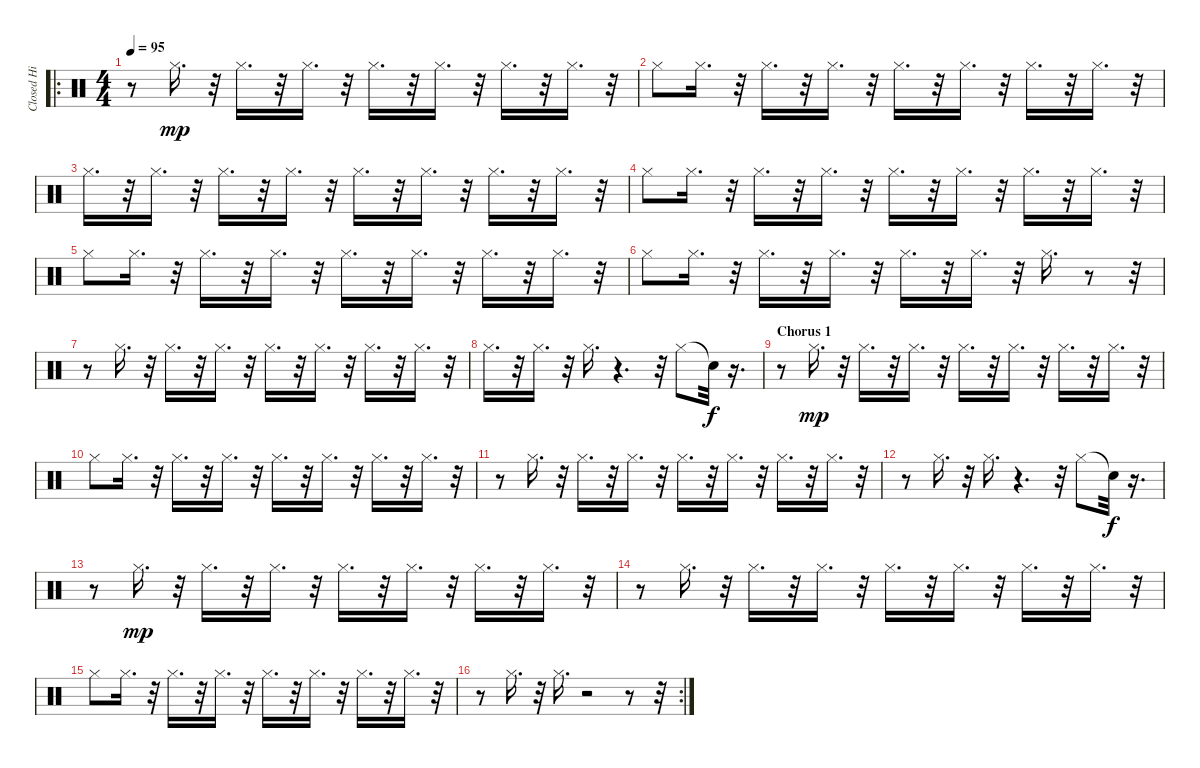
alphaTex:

\track ("Closed Hi Hat" "Closed Hi ") {instrument percussion}
\staff {score}
\articulation defaults
\ro
\ts (4 4)
\tempo 95
\clef neutral
\ks c
r.8{dy f} "Hi-Hat (closed)".16{d dy mp} r.32 "Hi-Hat (closed)".16{d} r.32 "Hi-Hat (closed)".16{d} r.32 "Hi-Hat (closed)".16{d} r.32 "Hi-Hat (closed)".16{d} r.32 "Hi-Hat (closed)".16{d} r.32 "Hi-Hat (closed)".16{d} r.32 |
"Hi-Hat (closed)".8 "Hi-Hat (closed)".16{d} r.32 "Hi-Hat (closed)".16{d} r.32 "Hi-Hat (closed)".16{d} r.32 "Hi-Hat (closed)".16{d} r.32 "Hi-Hat (closed)".16{d} r.32 "Hi-Hat (closed)".16{d} r.32 "Hi-Hat (closed)".16{d} r.32 |
"Hi-Hat (closed)".16{d} r.32 "Hi-Hat (closed)".16{d} r.32 "Hi-Hat (closed)".16{d} r.32 "Hi-Hat (closed)".16{d} r.32 "Hi-Hat (closed)".16{d} r.32 "Hi-Hat (closed)".16{d} r.32 "Hi-Hat (closed)".16{d} r.32 "Hi-Hat (closed)".16{d} r.32 |
"Hi-Hat (closed)".8 "Hi-Hat (closed)".16{d} r.32 "Hi-Hat (closed)".16{d} r.32 "Hi-Hat (closed)".16{d} r.32 "Hi-Hat (closed)".16{d} r.32 "Hi-Hat (closed)".16{d} r.32 "Hi-Hat (closed)".16{d} r.32 "Hi-Hat (closed)".16{d} r.32 |
"Hi-Hat (closed)".8 "Hi-Hat (closed)".16{d} r.32 "Hi-Hat (closed)".16{d} r.32 "Hi-Hat (closed)".16{d} r.32 "Hi-Hat (closed)".16{d} r.32 "Hi-Hat (closed)".16{d} r.32 "Hi-Hat (closed)".16{d} r.32 "Hi-Hat (closed)".16{d} r.32 |
"Hi-Hat (closed)".8 "Hi-Hat (closed)".16{d} r.32 "Hi-Hat (closed)".16{d} r.32 "Hi-Hat (closed)".16{d} r.32 "Hi-Hat (closed)".16{d} r.32 "Hi-Hat (closed)".16{d} r.32 "Hi-Hat (closed)".16{d} r.8 r.32 |
r.8 "Hi-Hat (closed)".16{d} r.32 "Hi-Hat (closed)".16{d} r.32 "Hi-Hat (closed)".16{d} r.32 "Hi-Hat (closed)".16{d} r.32 "Hi-Hat (closed)".16{d} r.32 "Hi-Hat (closed)".16{d} r.32 "Hi-Hat (closed)".16{d} r.32 |
"Hi-Hat (closed)".16{d} r.32 "Hi-Hat (closed)".16{d} r.32 "Hi-Hat (closed)".16{d} r.4{d} r.32 "Hi-Hat (closed)".8 "Snare (hit)"{t}.32{dy f} r.16{d} |
\section ("" "Chorus 1")
r.8 "Hi-Hat (closed)".16{d dy mp} r.32 "Hi-Hat (closed)".16{d} r.32 "Hi-Hat (closed)".16{d} r.32 "Hi-Hat (closed)".16{d} r.32 "Hi-Hat (closed)".16{d} r.32 "Hi-Hat (closed)".16{d} r.32 "Hi-Hat (closed)".16{d} r.32 |
"Hi-Hat (closed)".8 "Hi-Hat (closed)".16{d} r.32 "Hi-Hat (closed)".16{d} r.32 "Hi-Hat (closed)".16{d} r.32 "Hi-Hat (closed)".16{d} r.32 "Hi-Hat (closed)".16{d} r.32 "Hi-Hat (closed)".16{d} r.32 "Hi-Hat (closed)".16{d} r.32 |
r.8 "Hi-Hat (closed)".16{d} r.32 "Hi-Hat (closed)".16{d} r.32 "Hi-Hat (closed)".16{d} r.32 "Hi-Hat (closed)".16{d} r.32 "Hi-Hat (closed)".16{d} r.32 "Hi-Hat (closed)".16{d} r.32 "Hi-Hat (closed)".16{d} r.32 |
r.8 "Hi-Hat (closed)".16{d} r.32 "Hi-Hat (closed)".16{d} r.4{d} r.32 "Hi-Hat (closed)".8 "Snare (hit)"{t}.32{dy f} r.16{d} |
r.8 "Hi-Hat (closed)".16{d dy mp} r.32 "Hi-Hat (closed)".16{d} r.32 "Hi-Hat (closed)".16{d} r.32 "Hi-Hat (closed)".16{d} r.32 "Hi-Hat (closed)".16{d} r.32 "Hi-Hat (closed)".16{d} r.32 "Hi-Hat (closed)".16{d} r.32 |
r.8 "Hi-Hat (closed)".16{d} r.32 "Hi-Hat (closed)".16{d} r.32 "Hi-Hat (closed)".16{d} r.32 "Hi-Hat (closed)".16{d} r.32 "Hi-Hat (closed)".16{d} r.32 "Hi-Hat (closed)".16{d} r.32 "Hi-Hat (closed)".16{d} r.32 |
"Hi-Hat (closed)".8 "Hi-Hat (closed)".16{d} r.32 "Hi-Hat (closed)".16{d} r.32 "Hi-Hat (closed)".16{d} r.32 "Hi-Hat (closed)".16{d} r.32 "Hi-Hat (closed)".16{d} r.32 "Hi-Hat (closed)".16{d} r.32 "Hi-Hat (closed)".16{d} r.32 |
\rc 2
r.8 "Hi-Hat (closed)".16{d} r.32 "Hi-Hat (closed)".16{d} r.2 r.8 r.32
